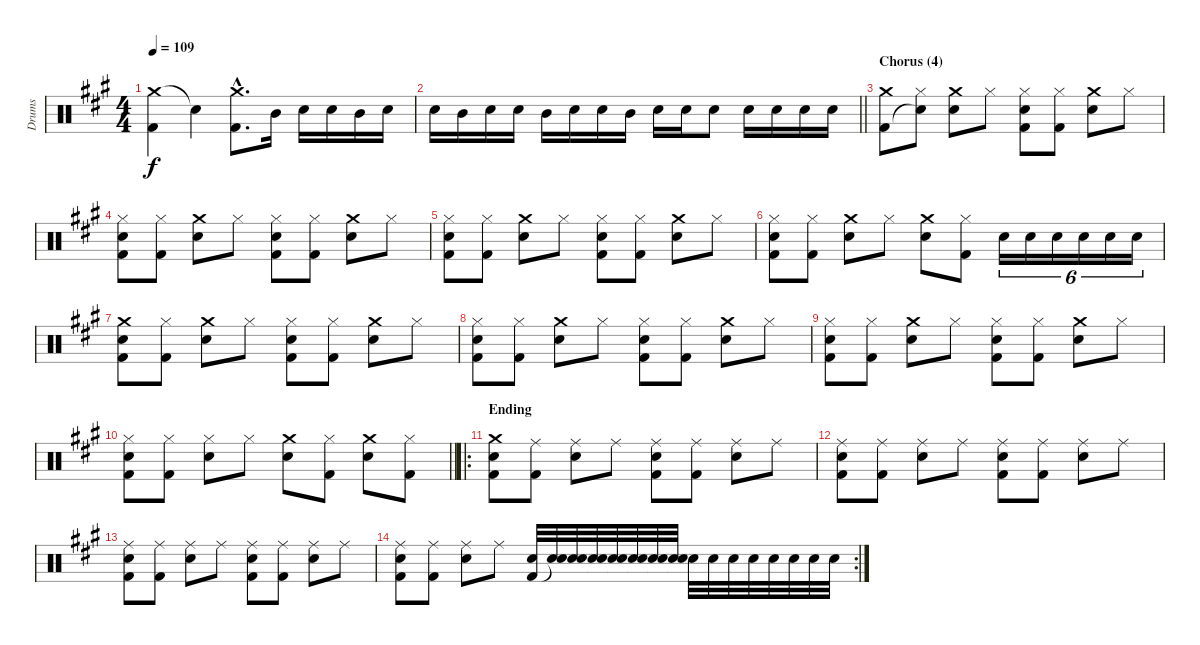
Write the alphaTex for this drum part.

\track ("Drums" "Drums") {instrument percussion}
\staff {score}
\articulation defaults
\ts (4 4)
\tempo 109
\clef neutral
\ks f#minor
("Crash medium (hit)" "Kick (hit) 2").4{dy f} "Snare (hit)"{t}.4 ("Crash medium (hit)"{hac} "Kick (hit) 2"{hac}).8{d} "Mid Tom (hit)".16 "Electric Snare (hit)".16 "Electric Snare (hit)".16 "Mid Tom (hit)".16 "Electric Snare (hit)".16 |
\barLineRight lightlight "Electric Snare (hit)".16 "Mid Tom (hit)".16 "Electric Snare (hit)".16 "Electric Snare (hit)".16 "Mid Tom (hit)".16 "Electric Snare (hit)".16 "Electric Snare (hit)".16 "Mid Tom (hit)".16 "Electric Snare (hit)".16 "Electric Snare (hit)".16 "Electric Snare (hit)".8 "Electric Snare (hit)".16 "Electric Snare (hit)".16 "Electric Snare (hit)".16 "Electric Snare (hit)".16
|
\section ("" "Chorus (4)")
("Crash medium (hit)" "Kick (hit) 2").8 ("Hi-Hat (closed)" "Snare (hit)"{t}).8 ("Crash medium (hit)" "Electric Snare (hit)").8 "Hi-Hat (closed)".8 ("Hi-Hat (closed)" "Electric Snare (hit)" "Kick (hit) 2").8 ("Hi-Hat (closed)" "Kick (hit) 2").8 ("Crash medium (hit)" "Electric Snare (hit)").8 "Hi-Hat (closed)".8 |
("Hi-Hat (closed)" "Electric Snare (hit)" "Kick (hit) 2").8 ("Hi-Hat (closed)" "Kick (hit) 2").8 ("Crash medium (hit)" "Electric Snare (hit)").8 "Hi-Hat (closed)".8 ("Hi-Hat (closed)" "Electric Snare (hit)" "Kick (hit) 2").8 ("Hi-Hat (closed)" "Kick (hit) 2").8 ("Crash medium (hit)" "Electric Snare (hit)").8 "Hi-Hat (closed)".8 |
("Hi-Hat (closed)" "Electric Snare (hit)" "Kick (hit) 2").8 ("Hi-Hat (closed)" "Kick (hit) 2").8 ("Crash medium (hit)" "Electric Snare (hit)").8 "Hi-Hat (closed)".8 ("Hi-Hat (closed)" "Electric Snare (hit)" "Kick (hit) 2").8 ("Hi-Hat (closed)" "Kick (hit) 2").8 ("Crash medium (hit)" "Electric Snare (hit)").8 "Hi-Hat (closed)".8 |
("Hi-Hat (closed)" "Electric Snare (hit)" "Kick (hit) 2").8 ("Hi-Hat (closed)" "Kick (hit) 2").8 ("Crash medium (hit)" "Electric Snare (hit)").8 "Hi-Hat (closed)".8 ("Crash medium (hit)" "Electric Snare (hit)").8 ("Hi-Hat (closed)" "Kick (hit) 2").8 "Electric Snare (hit)".16{tu (6 4)} "Electric Snare (hit)".16{tu (6 4)} "Electric Snare (hit)".16{tu (6 4)} "Electric Snare (hit)".16{tu (6 4)} "Electric Snare (hit)".16{tu (6 4)} "Electric Snare (hit)".16{tu (6 4)} |
("Crash medium (hit)" "Electric Snare (hit)" "Kick (hit) 2").8 ("Hi-Hat (closed)" "Kick (hit) 2").8 ("Crash medium (hit)" "Electric Snare (hit)").8 "Hi-Hat (closed)".8 ("Hi-Hat (closed)" "Electric Snare (hit)" "Kick (hit) 2").8 ("Hi-Hat (closed)" "Kick (hit) 2").8 ("Crash medium (hit)" "Electric Snare (hit)").8 "Hi-Hat (closed)".8 |
("Hi-Hat (closed)" "Electric Snare (hit)" "Kick (hit) 2").8 ("Hi-Hat (closed)" "Kick (hit) 2").8 ("Crash medium (hit)" "Electric Snare (hit)").8 "Hi-Hat (closed)".8 ("Hi-Hat (closed)" "Electric Snare (hit)" "Kick (hit) 2").8 ("Hi-Hat (closed)" "Kick (hit) 2").8 ("Crash medium (hit)" "Electric Snare (hit)").8 "Hi-Hat (closed)".8 |
("Hi-Hat (closed)" "Electric Snare (hit)" "Kick (hit) 2").8 ("Hi-Hat (closed)" "Kick (hit) 2").8 ("Crash medium (hit)" "Electric Snare (hit)").8 "Hi-Hat (closed)".8 ("Hi-Hat (closed)" "Electric Snare (hit)" "Kick (hit) 2").8 ("Hi-Hat (closed)" "Kick (hit) 2").8 ("Crash medium (hit)" "Electric Snare (hit)").8 "Hi-Hat (closed)".8 |
\barLineRight lightlight
("Hi-Hat (closed)" "Electric Snare (hit)" "Kick (hit) 2").8 ("Hi-Hat (closed)" "Kick (hit) 2").8 ("Hi-Hat (closed)" "Electric Snare (hit)").8 "Hi-Hat (closed)".8 ("Crash medium (hit)" "Electric Snare (hit)").8 ("Hi-Hat (closed)" "Kick (hit) 2").8 ("Crash medium (hit)" "Electric Snare (hit)").8 ("Hi-Hat (closed)" "Kick (hit) 2").8 |
\ro
\section ("" "Ending")
("Crash medium (hit)" "Electric Snare (hit)" "Kick (hit) 2").8 ("Ride (middle)" "Kick (hit) 2").8 ("Ride (middle)" "Electric Snare (hit)").8 "Ride (middle)".8 ("Ride (middle)" "Electric Snare (hit)" "Kick (hit) 2").8 ("Ride (middle)" "Kick (hit) 2").8 ("Ride (middle)" "Electric Snare (hit)").8 "Ride (middle)".8 |
("Ride (middle)" "Electric Snare (hit)" "Kick (hit) 2").8 ("Ride (middle)" "Kick (hit) 2").8 ("Ride (middle)" "Electric Snare (hit)").8 "Ride (middle)".8 ("Ride (middle)" "Electric Snare (hit)" "Kick (hit) 2").8 ("Ride (middle)" "Kick (hit) 2").8 ("Ride (middle)" "Electric Snare (hit)").8 "Ride (middle)".8 |
("Ride (middle)" "Electric Snare (hit)" "Kick (hit) 2").8 ("Ride (middle)" "Kick (hit) 2").8 ("Ride (middle)" "Electric Snare (hit)").8 "Ride (middle)".8 ("Ride (middle)" "Electric Snare (hit)" "Kick (hit) 2").8 ("Ride (middle)" "Kick (hit) 2").8 ("Ride (middle)" "Electric Snare (hit)").8 "Ride (middle)".8 |
\rc 2
("Ride (middle)" "Electric Snare (hit)" "Kick (hit) 2").8 ("Ride (middle)" "Kick (hit) 2").8 ("Ride (middle)" "Electric Snare (hit)").8 "Ride (middle)".8 ("Electric Snare (hit)" "Kick (hit) 2").32 ("Electric Snare (hit)" "Snare (hit)"{t}).32 ("Electric Snare (hit)" "Snare (hit)"{t}).32 ("Electric Snare (hit)" "Snare (hit)"{t}).32 ("Electric Snare (hit)" "Snare (hit)"{t}).32 ("Electric Snare (hit)" "Snare (hit)"{t}).32 ("Electric Snare (hit)" "Snare (hit)"{t}).32 ("Electric Snare (hit)" "Snare (hit)"{t}).32 "Electric Snare (hit)".32 "Electric Snare (hit)".32 "Electric Snare (hit)".32 "Electric Snare (hit)".32 "Electric Snare (hit)".32 "Electric Snare (hit)".32 "Electric Snare (hit)".32 "Electric Snare (hit)".32
